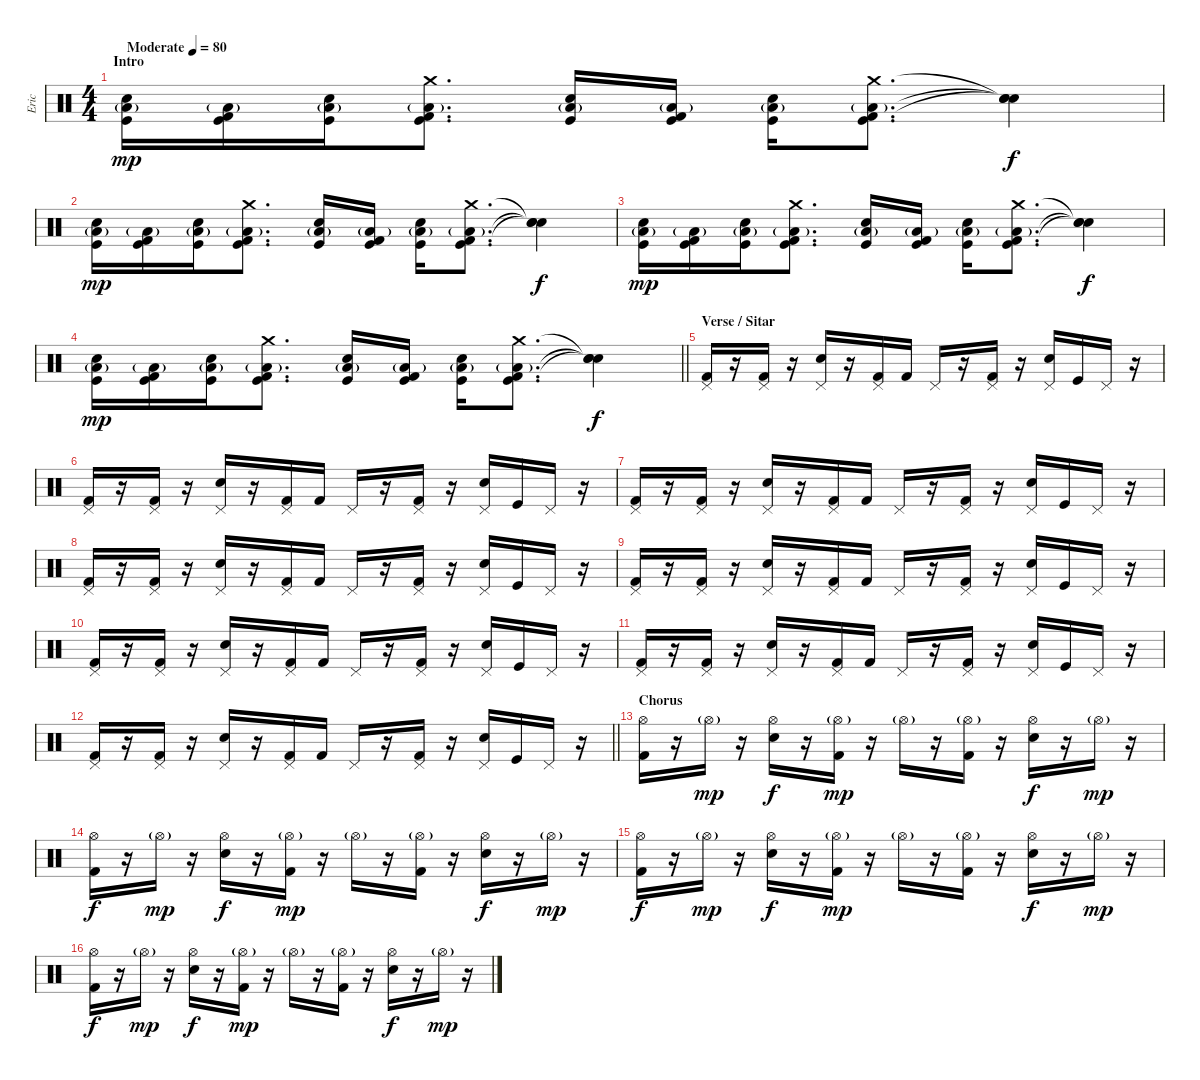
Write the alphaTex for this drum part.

\track ("Eric" "Eric") {instrument percussion}
\staff {score}
\articulation defaults
\ts (4 4)
\section ("" "Intro")
\tempo (80 "Moderate")
\clef neutral
\ks c
("Electric Snare (hit)" "Low Tom (hit)"{g} "Kick (hit)").16{dy mp} ("Kick (hit) 2" "Low Tom (hit)"{g} "Kick (hit)").16 ("Electric Snare (hit)" "Low Tom (hit)"{g} "Kick (hit)").16 ("Crash medium (hit)" "Kick (hit) 2" "Low Tom (hit)"{g} "Kick (hit)").8{d} ("Electric Snare (hit)" "Low Tom (hit)"{g} "Kick (hit)").16 ("Kick (hit) 2" "Low Tom (hit)"{g} "Kick (hit)").16 ("Electric Snare (hit)" "Low Tom (hit)"{g} "Kick (hit)").16 ("Crash medium (hit)" "Kick (hit) 2" "Low Tom (hit)"{g} "Kick (hit)").8{d} ("Snare (hit)"{t} "Snare (hit)"{t} "Snare (hit)"{t}).4{dy f} |
("Electric Snare (hit)" "Low Tom (hit)"{g} "Kick (hit)").16{dy mp} ("Kick (hit) 2" "Low Tom (hit)"{g} "Kick (hit)").16 ("Electric Snare (hit)" "Low Tom (hit)"{g} "Kick (hit)").16 ("Crash medium (hit)" "Kick (hit) 2" "Low Tom (hit)"{g} "Kick (hit)").8{d} ("Electric Snare (hit)" "Low Tom (hit)"{g} "Kick (hit)").16 ("Kick (hit) 2" "Low Tom (hit)"{g} "Kick (hit)").16 ("Electric Snare (hit)" "Low Tom (hit)"{g} "Kick (hit)").16 ("Crash medium (hit)" "Kick (hit) 2" "Low Tom (hit)"{g} "Kick (hit)").8{d} ("Snare (hit)"{t} "Snare (hit)"{t} "Snare (hit)"{t}).4{dy f} |
("Electric Snare (hit)" "Low Tom (hit)"{g} "Kick (hit)").16{dy mp} ("Kick (hit) 2" "Low Tom (hit)"{g} "Kick (hit)").16 ("Electric Snare (hit)" "Low Tom (hit)"{g} "Kick (hit)").16 ("Crash medium (hit)" "Kick (hit) 2" "Low Tom (hit)"{g} "Kick (hit)").8{d} ("Electric Snare (hit)" "Low Tom (hit)"{g} "Kick (hit)").16 ("Kick (hit) 2" "Low Tom (hit)"{g} "Kick (hit)").16 ("Electric Snare (hit)" "Low Tom (hit)"{g} "Kick (hit)").16 ("Crash medium (hit)" "Kick (hit) 2" "Low Tom (hit)"{g} "Kick (hit)").8{d} ("Snare (hit)"{t} "Snare (hit)"{t} "Snare (hit)"{t}).4{dy f} |
\barLineRight lightlight
("Electric Snare (hit)" "Low Tom (hit)"{g} "Kick (hit)").16{dy mp} ("Kick (hit) 2" "Low Tom (hit)"{g} "Kick (hit)").16 ("Electric Snare (hit)" "Low Tom (hit)"{g} "Kick (hit)").16 ("Crash medium (hit)" "Kick (hit) 2" "Low Tom (hit)"{g} "Kick (hit)").8{d} ("Electric Snare (hit)" "Low Tom (hit)"{g} "Kick (hit)").16 ("Kick (hit) 2" "Low Tom (hit)"{g} "Kick (hit)").16 ("Electric Snare (hit)" "Low Tom (hit)"{g} "Kick (hit)").16 ("Crash medium (hit)" "Kick (hit) 2" "Low Tom (hit)"{g} "Kick (hit)").8{d} ("Snare (hit)"{t} "Snare (hit)"{t} "Snare (hit)"{t}).4{dy f} |
\section ("" "Verse / Sitar")
("Pedal Hi-Hat (hit)" "Kick (hit) 2").16 r.16 ("Pedal Hi-Hat (hit)" "Kick (hit) 2").16 r.16 ("Pedal Hi-Hat (hit)" "Electric Snare (hit)").16 r.16 ("Pedal Hi-Hat (hit)" "Kick (hit) 2").16 "Kick (hit) 2".16 "Pedal Hi-Hat (hit)".16 r.16 ("Pedal Hi-Hat (hit)" "Kick (hit) 2").16 r.16 ("Pedal Hi-Hat (hit)" "Electric Snare (hit)").16 "Kick (hit)".16 "Pedal Hi-Hat (hit)".16 r.16 |
("Pedal Hi-Hat (hit)" "Kick (hit) 2").16 r.16 ("Pedal Hi-Hat (hit)" "Kick (hit) 2").16 r.16 ("Pedal Hi-Hat (hit)" "Electric Snare (hit)").16 r.16 ("Pedal Hi-Hat (hit)" "Kick (hit) 2").16 "Kick (hit) 2".16 "Pedal Hi-Hat (hit)".16 r.16 ("Pedal Hi-Hat (hit)" "Kick (hit) 2").16 r.16 ("Pedal Hi-Hat (hit)" "Electric Snare (hit)").16 "Kick (hit)".16 "Pedal Hi-Hat (hit)".16 r.16 |
("Pedal Hi-Hat (hit)" "Kick (hit) 2").16 r.16 ("Pedal Hi-Hat (hit)" "Kick (hit) 2").16 r.16 ("Pedal Hi-Hat (hit)" "Electric Snare (hit)").16 r.16 ("Pedal Hi-Hat (hit)" "Kick (hit) 2").16 "Kick (hit) 2".16 "Pedal Hi-Hat (hit)".16 r.16 ("Pedal Hi-Hat (hit)" "Kick (hit) 2").16 r.16 ("Pedal Hi-Hat (hit)" "Electric Snare (hit)").16 "Kick (hit)".16 "Pedal Hi-Hat (hit)".16 r.16 |
("Pedal Hi-Hat (hit)" "Kick (hit) 2").16 r.16 ("Pedal Hi-Hat (hit)" "Kick (hit) 2").16 r.16 ("Pedal Hi-Hat (hit)" "Electric Snare (hit)").16 r.16 ("Pedal Hi-Hat (hit)" "Kick (hit) 2").16 "Kick (hit) 2".16 "Pedal Hi-Hat (hit)".16 r.16 ("Pedal Hi-Hat (hit)" "Kick (hit) 2").16 r.16 ("Pedal Hi-Hat (hit)" "Electric Snare (hit)").16 "Kick (hit)".16 "Pedal Hi-Hat (hit)".16 r.16 |
("Pedal Hi-Hat (hit)" "Kick (hit) 2").16 r.16 ("Pedal Hi-Hat (hit)" "Kick (hit) 2").16 r.16 ("Pedal Hi-Hat (hit)" "Electric Snare (hit)").16 r.16 ("Pedal Hi-Hat (hit)" "Kick (hit) 2").16 "Kick (hit) 2".16 "Pedal Hi-Hat (hit)".16 r.16 ("Pedal Hi-Hat (hit)" "Kick (hit) 2").16 r.16 ("Pedal Hi-Hat (hit)" "Electric Snare (hit)").16 "Kick (hit)".16 "Pedal Hi-Hat (hit)".16 r.16 |
("Pedal Hi-Hat (hit)" "Kick (hit) 2").16 r.16 ("Pedal Hi-Hat (hit)" "Kick (hit) 2").16 r.16 ("Pedal Hi-Hat (hit)" "Electric Snare (hit)").16 r.16 ("Pedal Hi-Hat (hit)" "Kick (hit) 2").16 "Kick (hit) 2".16 "Pedal Hi-Hat (hit)".16 r.16 ("Pedal Hi-Hat (hit)" "Kick (hit) 2").16 r.16 ("Pedal Hi-Hat (hit)" "Electric Snare (hit)").16 "Kick (hit)".16 "Pedal Hi-Hat (hit)".16 r.16 |
("Pedal Hi-Hat (hit)" "Kick (hit) 2").16 r.16 ("Pedal Hi-Hat (hit)" "Kick (hit) 2").16 r.16 ("Pedal Hi-Hat (hit)" "Electric Snare (hit)").16 r.16 ("Pedal Hi-Hat (hit)" "Kick (hit) 2").16 "Kick (hit) 2".16 "Pedal Hi-Hat (hit)".16 r.16 ("Pedal Hi-Hat (hit)" "Kick (hit) 2").16 r.16 ("Pedal Hi-Hat (hit)" "Electric Snare (hit)").16 "Kick (hit)".16 "Pedal Hi-Hat (hit)".16 r.16 |
\barLineRight lightlight
("Pedal Hi-Hat (hit)" "Kick (hit) 2").16 r.16 ("Pedal Hi-Hat (hit)" "Kick (hit) 2").16 r.16 ("Pedal Hi-Hat (hit)" "Electric Snare (hit)").16 r.16 ("Pedal Hi-Hat (hit)" "Kick (hit) 2").16 "Kick (hit) 2".16 "Pedal Hi-Hat (hit)".16 r.16 ("Pedal Hi-Hat (hit)" "Kick (hit) 2").16 r.16 ("Pedal Hi-Hat (hit)" "Electric Snare (hit)").16 "Kick (hit)".16 "Pedal Hi-Hat (hit)".16 r.16 |
\section ("" "Chorus")
("Hi-Hat (open)" "Kick (hit) 2").16 r.16 "Hi-Hat (open)"{g}.16{dy mp} r.16 ("Hi-Hat (open)" "Electric Snare (hit)").16{dy f} r.16 ("Hi-Hat (open)"{g} "Kick (hit) 2").16{dy mp} r.16 "Hi-Hat (open)"{g}.16 r.16 ("Hi-Hat (open)"{g} "Kick (hit) 2").16 r.16 ("Hi-Hat (open)" "Electric Snare (hit)").16{dy f} r.16 "Hi-Hat (open)"{g}.16{dy mp} r.16 |
("Hi-Hat (open)" "Kick (hit) 2").16{dy f} r.16 "Hi-Hat (open)"{g}.16{dy mp} r.16 ("Hi-Hat (open)" "Electric Snare (hit)").16{dy f} r.16 ("Hi-Hat (open)"{g} "Kick (hit) 2").16{dy mp} r.16 "Hi-Hat (open)"{g}.16 r.16 ("Hi-Hat (open)"{g} "Kick (hit) 2").16 r.16 ("Hi-Hat (open)" "Electric Snare (hit)").16{dy f} r.16 "Hi-Hat (open)"{g}.16{dy mp} r.16 |
("Hi-Hat (open)" "Kick (hit) 2").16{dy f} r.16 "Hi-Hat (open)"{g}.16{dy mp} r.16 ("Hi-Hat (open)" "Electric Snare (hit)").16{dy f} r.16 ("Hi-Hat (open)"{g} "Kick (hit) 2").16{dy mp} r.16 "Hi-Hat (open)"{g}.16 r.16 ("Hi-Hat (open)"{g} "Kick (hit) 2").16 r.16 ("Hi-Hat (open)" "Electric Snare (hit)").16{dy f} r.16 "Hi-Hat (open)"{g}.16{dy mp} r.16 |
("Hi-Hat (open)" "Kick (hit) 2").16{dy f} r.16 "Hi-Hat (open)"{g}.16{dy mp} r.16 ("Hi-Hat (open)" "Electric Snare (hit)").16{dy f} r.16 ("Hi-Hat (open)"{g} "Kick (hit) 2").16{dy mp} r.16 "Hi-Hat (open)"{g}.16 r.16 ("Hi-Hat (open)"{g} "Kick (hit) 2").16 r.16 ("Hi-Hat (open)" "Electric Snare (hit)").16{dy f} r.16 "Hi-Hat (open)"{g}.16{dy mp} r.16
